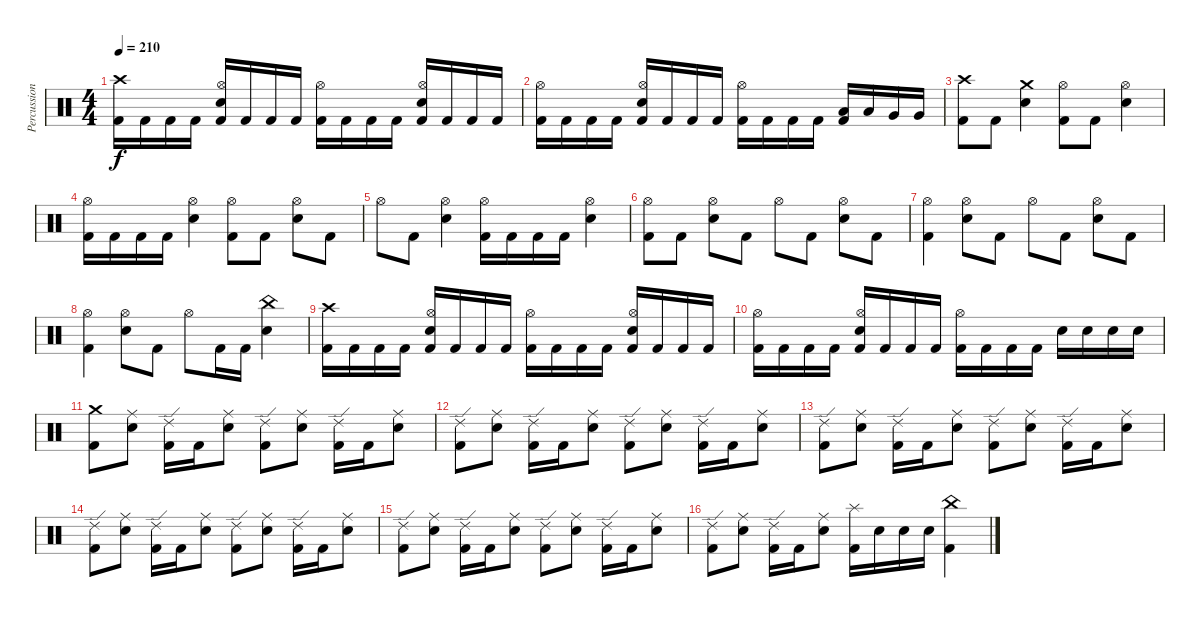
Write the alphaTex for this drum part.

\track ("Percussion" "Percussion") {instrument percussion}
\staff {score}
\articulation defaults
\ts (4 4)
\tempo 210
\clef neutral
\ks c
("Crash high (hit)" "Kick (hit) 2").16{dy f} "Kick (hit) 2".16 "Kick (hit) 2".16 "Kick (hit) 2".16 ("Hi-Hat (open)" "Electric Snare (hit)" "Kick (hit) 2").16 "Kick (hit) 2".16 "Kick (hit) 2".16 "Kick (hit) 2".16 ("Hi-Hat (open)" "Kick (hit) 2").16 "Kick (hit) 2".16 "Kick (hit) 2".16 "Kick (hit) 2".16 ("Hi-Hat (open)" "Electric Snare (hit)" "Kick (hit) 2").16 "Kick (hit) 2".16 "Kick (hit) 2".16 "Kick (hit) 2".16 |
("Hi-Hat (open)" "Kick (hit) 2").16 "Kick (hit) 2".16 "Kick (hit) 2".16 "Kick (hit) 2".16 ("Hi-Hat (open)" "Electric Snare (hit)" "Kick (hit) 2").16 "Kick (hit) 2".16 "Kick (hit) 2".16 "Kick (hit) 2".16 ("Hi-Hat (open)" "Kick (hit) 2").16 "Kick (hit) 2".16 "Kick (hit) 2".16 "Kick (hit) 2".16 ("Low Tom (hit)" "Kick (hit) 2").16 "Low Tom (hit)".16 "Very Low Tom (hit)".16 "Very Low Tom (hit)".16 |
("Crash high (hit)" "Kick (hit) 2").8 "Kick (hit) 2".8 ("Crash medium (hit)" "Electric Snare (hit)").4 ("Hi-Hat (open)" "Kick (hit) 2").8 "Kick (hit) 2".8 ("Hi-Hat (open)" "Electric Snare (hit)").4 |
("Hi-Hat (open)" "Kick (hit) 2").16 "Kick (hit) 2".16 "Kick (hit) 2".16 "Kick (hit) 2".16 ("Hi-Hat (open)" "Electric Snare (hit)").4 ("Hi-Hat (open)" "Kick (hit) 2").8 "Kick (hit) 2".8 ("Hi-Hat (open)" "Electric Snare (hit)").8 "Kick (hit) 2".8 |
"Hi-Hat (open)".8 "Kick (hit) 2".8 ("Hi-Hat (open)" "Electric Snare (hit)").4 ("Hi-Hat (open)" "Kick (hit) 2").16 "Kick (hit) 2".16 "Kick (hit) 2".16 "Kick (hit) 2".16 ("Hi-Hat (open)" "Electric Snare (hit)").4 |
("Hi-Hat (open)" "Kick (hit) 2").8 "Kick (hit) 2".8 ("Hi-Hat (open)" "Electric Snare (hit)").8 "Kick (hit) 2".8 "Hi-Hat (open)".8 "Kick (hit) 2".8 ("Hi-Hat (open)" "Electric Snare (hit)").8 "Kick (hit) 2".8 |
("Hi-Hat (open)" "Kick (hit) 2").4 ("Hi-Hat (open)" "Electric Snare (hit)").8 "Kick (hit) 2".8 "Hi-Hat (open)".8 "Kick (hit) 2".8 ("Hi-Hat (open)" "Electric Snare (hit)").8 "Kick (hit) 2".8 |
("Hi-Hat (open)" "Kick (hit) 2").4 ("Hi-Hat (open)" "Electric Snare (hit)").8 "Kick (hit) 2".8 "Hi-Hat (open)".8 "Kick (hit) 2".16 "Kick (hit) 2".16 ("China (hit)" "Electric Snare (hit)").4 |
("Crash high (hit)" "Kick (hit) 2").16 "Kick (hit) 2".16 "Kick (hit) 2".16 "Kick (hit) 2".16 ("Hi-Hat (open)" "Electric Snare (hit)" "Kick (hit) 2").16 "Kick (hit) 2".16 "Kick (hit) 2".16 "Kick (hit) 2".16 ("Hi-Hat (open)" "Kick (hit) 2").16 "Kick (hit) 2".16 "Kick (hit) 2".16 "Kick (hit) 2".16 ("Hi-Hat (open)" "Electric Snare (hit)" "Kick (hit) 2").16 "Kick (hit) 2".16 "Kick (hit) 2".16 "Kick (hit) 2".16 |
("Hi-Hat (open)" "Kick (hit) 2").16 "Kick (hit) 2".16 "Kick (hit) 2".16 "Kick (hit) 2".16 ("Hi-Hat (open)" "Electric Snare (hit)" "Kick (hit) 2").16 "Kick (hit) 2".16 "Kick (hit) 2".16 "Kick (hit) 2".16 ("Hi-Hat (open)" "Kick (hit) 2").16 "Kick (hit) 2".16 "Kick (hit) 2".16 "Kick (hit) 2".16 "Electric Snare (hit)".16 "Electric Snare (hit)".16 "Electric Snare (hit)".16 "Electric Snare (hit)".16 |
("Crash medium (hit)" "Kick (hit) 2").8 ("Ride (middle)" "Electric Snare (hit)").8 ("Ride (edge) 2" "Kick (hit) 2").16 "Kick (hit) 2".16 ("Ride (middle)" "Electric Snare (hit)").8 ("Ride (edge) 2" "Kick (hit) 2").8 ("Ride (middle)" "Electric Snare (hit)").8 ("Ride (edge) 2" "Kick (hit) 2").16 "Kick (hit) 2".16 ("Ride (middle)" "Electric Snare (hit)").8 |
("Ride (edge) 2" "Kick (hit) 2").8 ("Ride (middle)" "Electric Snare (hit)").8 ("Ride (edge) 2" "Kick (hit) 2").16 "Kick (hit) 2".16 ("Ride (middle)" "Electric Snare (hit)").8 ("Ride (edge) 2" "Kick (hit) 2").8 ("Ride (middle)" "Electric Snare (hit)").8 ("Ride (edge) 2" "Kick (hit) 2").16 "Kick (hit) 2".16 ("Ride (middle)" "Electric Snare (hit)").8 |
("Ride (edge) 2" "Kick (hit) 2").8 ("Ride (middle)" "Electric Snare (hit)").8 ("Ride (edge) 2" "Kick (hit) 2").16 "Kick (hit) 2".16 ("Ride (middle)" "Electric Snare (hit)").8 ("Ride (edge) 2" "Kick (hit) 2").8 ("Ride (middle)" "Electric Snare (hit)").8 ("Ride (edge) 2" "Kick (hit) 2").16 "Kick (hit) 2".16 ("Ride (middle)" "Electric Snare (hit)").8 |
("Ride (edge) 2" "Kick (hit) 2").8 ("Ride (middle)" "Electric Snare (hit)").8 ("Ride (edge) 2" "Kick (hit) 2").16 "Kick (hit) 2".16 ("Ride (middle)" "Electric Snare (hit)").8 ("Ride (edge) 2" "Kick (hit) 2").8 ("Ride (middle)" "Electric Snare (hit)").8 ("Ride (edge) 2" "Kick (hit) 2").16 "Kick (hit) 2".16 ("Ride (middle)" "Electric Snare (hit)").8 |
("Ride (edge) 2" "Kick (hit) 2").8 ("Ride (middle)" "Electric Snare (hit)").8 ("Ride (edge) 2" "Kick (hit) 2").16 "Kick (hit) 2".16 ("Ride (middle)" "Electric Snare (hit)").8 ("Ride (edge) 2" "Kick (hit) 2").8 ("Ride (middle)" "Electric Snare (hit)").8 ("Ride (edge) 2" "Kick (hit) 2").16 "Kick (hit) 2".16 ("Ride (middle)" "Electric Snare (hit)").8 |
("Ride (edge) 2" "Kick (hit) 2").8 ("Ride (middle)" "Electric Snare (hit)").8 ("Ride (edge) 2" "Kick (hit) 2").16 "Kick (hit) 2".16 ("Ride (middle)" "Electric Snare (hit)").8 ("Splash (hit)" "Kick (hit) 2").16 "Electric Snare (hit)".16 "Electric Snare (hit)".16 "Electric Snare (hit)".16 ("China (hit)" "Kick (hit) 2").4
